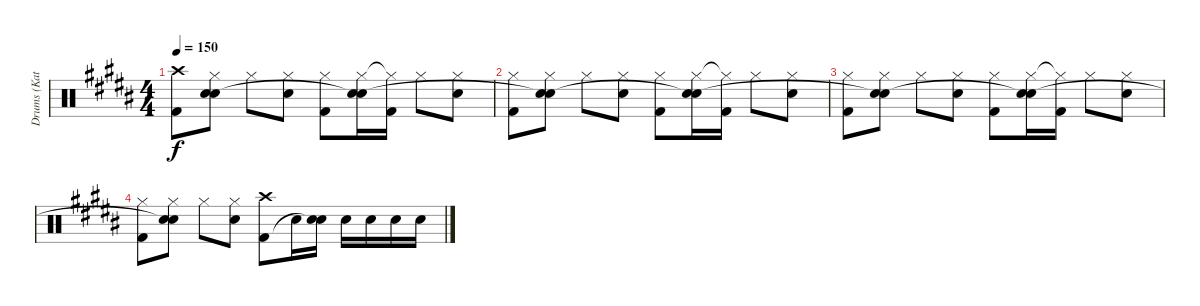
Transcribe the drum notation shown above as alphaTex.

\track ("Drums (Katsuji)" "Drums (Kat") {instrument percussion}
\staff {score}
\articulation defaults
\ts (4 4)
\tempo 150
\clef neutral
\ks b
("Crash high (hit)" "Kick (hit) 2").8{dy f} ("Hi-Hat (closed)" "Snare (hit) 2" "Snare (hit)"{t}).8 "Hi-Hat (closed)".8 ("Hi-Hat (closed)" "Snare (hit) 2").8 ("Hi-Hat (closed)" "Kick (hit) 2").8 ("Hi-Hat (closed)" "Snare (hit) 2" "Snare (hit)"{t}).16 ("Hi-Hat (closed)"{t} "Kick (hit) 2").16 "Hi-Hat (closed)".8 ("Hi-Hat (closed)" "Snare (hit) 2").8 |
("Hi-Hat (closed)" "Kick (hit) 2").8 ("Hi-Hat (closed)" "Snare (hit) 2" "Snare (hit)"{t}).8 "Hi-Hat (closed)".8 ("Hi-Hat (closed)" "Snare (hit) 2").8 ("Hi-Hat (closed)" "Kick (hit) 2").8 ("Hi-Hat (closed)" "Snare (hit) 2" "Snare (hit)"{t}).16 ("Hi-Hat (closed)"{t} "Kick (hit) 2").16 "Hi-Hat (closed)".8 ("Hi-Hat (closed)" "Snare (hit) 2").8 |
("Hi-Hat (closed)" "Kick (hit) 2").8 ("Hi-Hat (closed)" "Snare (hit) 2" "Snare (hit)"{t}).8 "Hi-Hat (closed)".8 ("Hi-Hat (closed)" "Snare (hit) 2").8 ("Hi-Hat (closed)" "Kick (hit) 2").8 ("Hi-Hat (closed)" "Snare (hit) 2" "Snare (hit)"{t}).16 ("Hi-Hat (closed)"{t} "Kick (hit) 2").16 "Hi-Hat (closed)".8 ("Hi-Hat (closed)" "Snare (hit) 2").8 |
("Hi-Hat (closed)" "Kick (hit) 2").8 ("Hi-Hat (closed)" "Snare (hit) 2" "Snare (hit)"{t}).8 "Hi-Hat (closed)".8 ("Hi-Hat (closed)" "Snare (hit) 2").8 ("Crash high (hit)" "Kick (hit) 2").8 "Snare (hit) 2".16 ("Snare (hit) 2" "Snare (hit)"{t}).16 "Snare (hit) 2".16 "Snare (hit) 2".16 "Snare (hit) 2".16 "Snare (hit) 2".16
